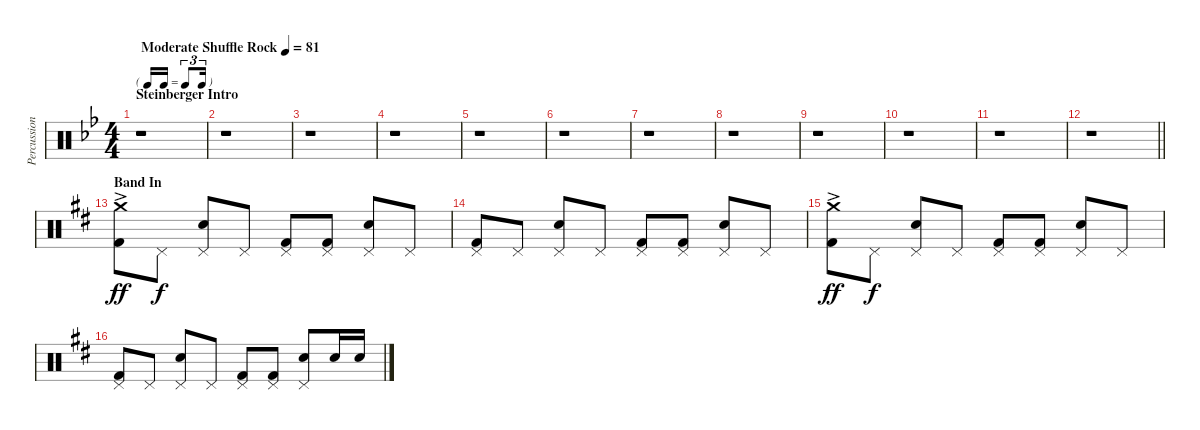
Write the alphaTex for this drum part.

\track ("Percussion" "Percussion") {instrument percussion}
\staff {score}
\articulation defaults
\ts (4 4)
\tf triplet16th
\section ("" "Steinberger Intro")
\tempo (81 "Moderate Shuffle Rock")
\clef neutral
\ks gminor
r.1{dy ff} |
r.1 |
r.1 |
r.1 |
r.1 |
r.1 |
r.1 |
r.1 |
r.1 |
r.1 |
r.1 |
\barLineRight lightlight
r.1 |
\section ("" "Band In")
\ks d
("Crash medium (hit)"{ac} "Kick (hit) 2").8 "Pedal Hi-Hat (hit)".8{dy f} ("Pedal Hi-Hat (hit)" "Snare (hit) 2").8 "Pedal Hi-Hat (hit)".8 ("Pedal Hi-Hat (hit)" "Kick (hit) 2").8 ("Pedal Hi-Hat (hit)" "Kick (hit) 2").8 ("Pedal Hi-Hat (hit)" "Snare (hit) 2").8 "Pedal Hi-Hat (hit)".8 |
("Pedal Hi-Hat (hit)" "Kick (hit) 2").8 "Pedal Hi-Hat (hit)".8 ("Pedal Hi-Hat (hit)" "Snare (hit) 2").8 "Pedal Hi-Hat (hit)".8 ("Pedal Hi-Hat (hit)" "Kick (hit) 2").8 ("Pedal Hi-Hat (hit)" "Kick (hit) 2").8 ("Pedal Hi-Hat (hit)" "Snare (hit) 2").8 "Pedal Hi-Hat (hit)".8 |
("Crash medium (hit)"{ac} "Kick (hit) 2").8{dy ff} "Pedal Hi-Hat (hit)".8{dy f} ("Pedal Hi-Hat (hit)" "Snare (hit) 2").8 "Pedal Hi-Hat (hit)".8 ("Pedal Hi-Hat (hit)" "Kick (hit) 2").8 ("Pedal Hi-Hat (hit)" "Kick (hit) 2").8 ("Pedal Hi-Hat (hit)" "Snare (hit) 2").8 "Pedal Hi-Hat (hit)".8 |
("Pedal Hi-Hat (hit)" "Kick (hit) 2").8 "Pedal Hi-Hat (hit)".8 ("Pedal Hi-Hat (hit)" "Snare (hit) 2").8 "Pedal Hi-Hat (hit)".8 ("Pedal Hi-Hat (hit)" "Kick (hit) 2").8 ("Pedal Hi-Hat (hit)" "Kick (hit) 2").8 ("Pedal Hi-Hat (hit)" "Snare (hit) 2").8 "Snare (hit) 2".16 "Snare (hit) 2".16
